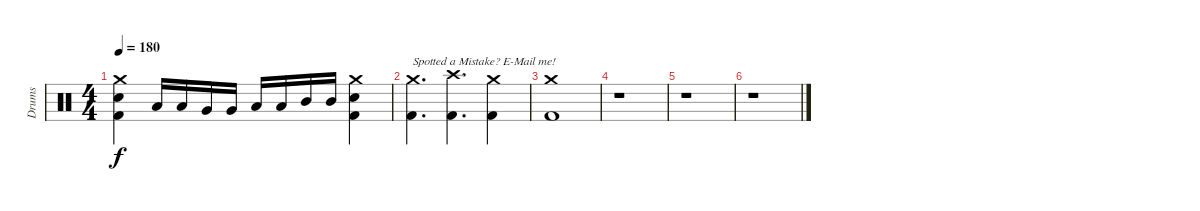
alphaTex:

\track ("Drums" "Drums") {instrument percussion}
\staff {score}
\articulation defaults
\ts (4 4)
\tempo 180
\clef neutral
\ks c
("Crash medium (hit)" "Electric Snare (hit)" "Kick (hit) 2").4{dy f} "Low Floor Tom (hit)".16 "Low Floor Tom (hit)".16 "Very Low Tom (hit)".16 "Very Low Tom (hit)".16 "Low Tom (hit)".16 "Low Tom (hit)".16 "Mid Tom (hit)".16 "Mid Tom (hit)".16 ("Crash medium (hit)" "Electric Snare (hit)" "Kick (hit) 2").4 |
("Crash medium (hit)" "Kick (hit) 2").4{d txt "Spotted a Mistake? E-Mail me!"} ("Crash high (hit)" "Kick (hit) 2").4{d} ("Crash medium (hit)" "Kick (hit) 2").4 |
("Crash medium (hit)" "Kick (hit) 2").1 |
r.1 |
r.1 |
r.1
